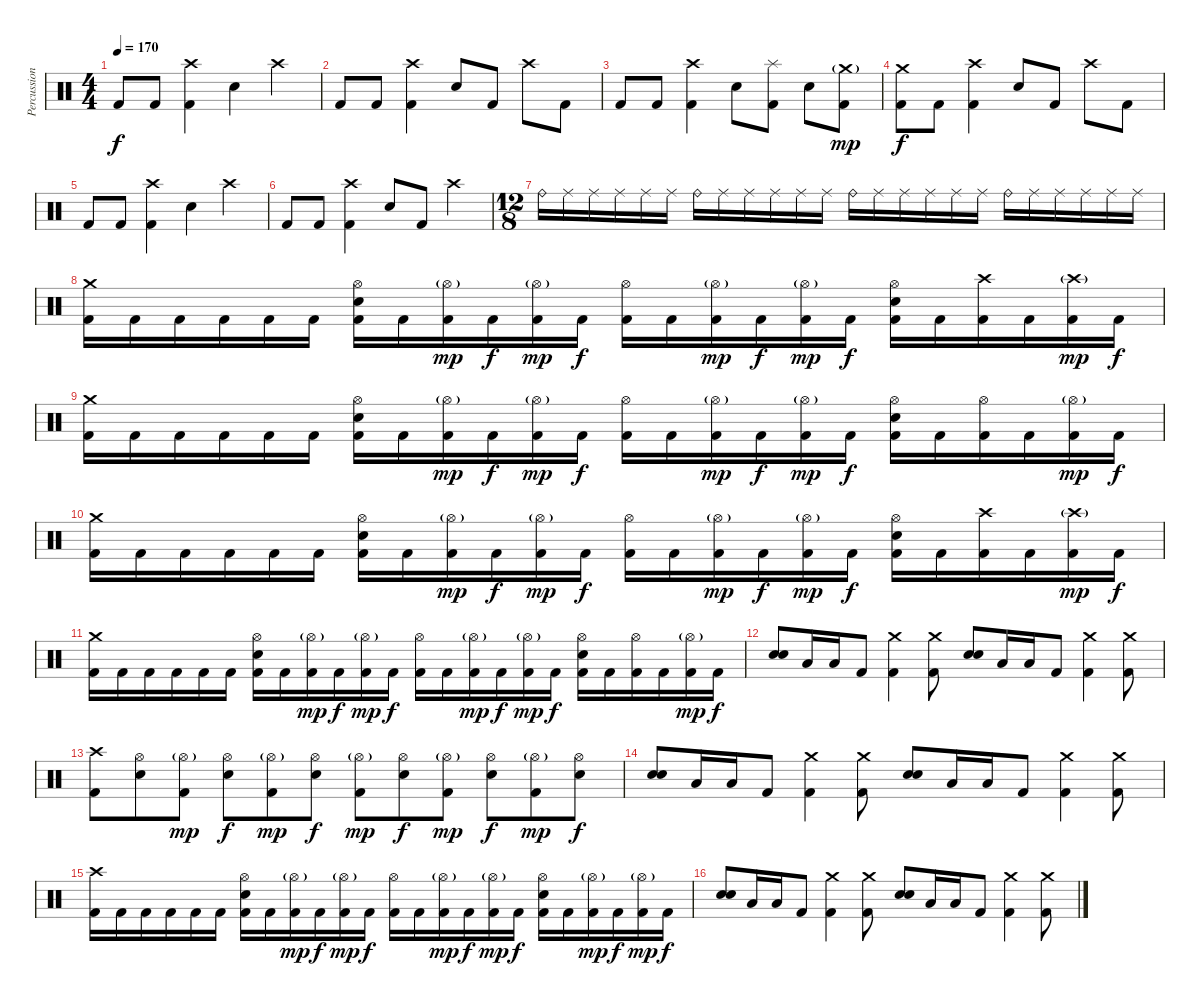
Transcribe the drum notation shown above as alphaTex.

\track ("Percussion" "Percussion") {instrument percussion}
\staff {score}
\articulation defaults
\ts (4 4)
\tempo 170
\clef neutral
\ks c "Kick (hit) 2".8{dy f} "Kick (hit) 2".8
("Crash high (hit)" "Kick (hit) 2").4 "Electric Snare (hit)".4 "Crash high (hit)".4 |
"Kick (hit) 2".8 "Kick (hit) 2".8 ("Crash high (hit)" "Kick (hit) 2").4 "Electric Snare (hit)".8 "Kick (hit) 2".8 "Crash high (hit)".8 "Kick (hit) 2".8 |
"Kick (hit) 2".8 "Kick (hit) 2".8 ("Crash high (hit)" "Kick (hit) 2").4 "Electric Snare (hit)".8 ("Splash (hit)" "Kick (hit) 2").8 "Electric Snare (hit)".8 ("Crash medium (hit)"{g} "Kick (hit) 2").8{dy mp} |
("Crash medium (hit)" "Kick (hit) 2").8{dy f} "Kick (hit) 2".8 ("Crash high (hit)" "Kick (hit) 2").4 "Electric Snare (hit)".8 "Kick (hit) 2".8 "Crash high (hit)".8 "Kick (hit) 2".8 |
"Kick (hit) 2".8 "Kick (hit) 2".8 ("Crash high (hit)" "Kick (hit) 2").4 "Electric Snare (hit)".4 "Crash high (hit)".4 |
"Kick (hit) 2".8 "Kick (hit) 2".8 ("Crash high (hit)" "Kick (hit) 2").4 "Electric Snare (hit)".8 "Kick (hit) 2".8 "Crash high (hit)".4 |
\ts (12 8)
"Ride (bell)".16 "Ride (middle)".16 "Ride (middle)".16 "Ride (middle)".16 "Ride (middle)".16 "Ride (middle)".16 "Ride (bell)".16 "Ride (middle)".16 "Ride (middle)".16 "Ride (middle)".16 "Ride (middle)".16 "Ride (middle)".16 "Ride (bell)".16 "Ride (middle)".16 "Ride (middle)".16 "Ride (middle)".16 "Ride (middle)".16 "Ride (middle)".16 "Ride (bell)".16 "Ride (middle)".16 "Ride (middle)".16 "Ride (middle)".16 "Ride (middle)".16 "Ride (middle)".16 |
("Crash medium (hit)" "Kick (hit) 2").16 "Kick (hit) 2".16 "Kick (hit) 2".16 "Kick (hit) 2".16 "Kick (hit) 2".16 "Kick (hit) 2".16 ("Hi-Hat (open)" "Electric Snare (hit)" "Kick (hit) 2").16 "Kick (hit) 2".16 ("Hi-Hat (open)"{g} "Kick (hit) 2").16{dy mp} "Kick (hit) 2".16{dy f} ("Hi-Hat (open)"{g} "Kick (hit) 2").16{dy mp} "Kick (hit) 2".16{dy f} ("Hi-Hat (open)" "Kick (hit) 2").16 "Kick (hit) 2".16 ("Hi-Hat (open)"{g} "Kick (hit) 2").16{dy mp} "Kick (hit) 2".16{dy f} ("Hi-Hat (open)"{g} "Kick (hit) 2").16{dy mp} "Kick (hit) 2".16{dy f} ("Hi-Hat (open)" "Electric Snare (hit)" "Kick (hit) 2").16 "Kick (hit) 2".16 ("Crash high (hit)" "Kick (hit) 2").16 "Kick (hit) 2".16 ("Crash high (hit)"{g} "Kick (hit) 2").16{dy mp} "Kick (hit) 2".16{dy f} |
("Crash medium (hit)" "Kick (hit) 2").16 "Kick (hit) 2".16 "Kick (hit) 2".16 "Kick (hit) 2".16 "Kick (hit) 2".16 "Kick (hit) 2".16 ("Hi-Hat (open)" "Electric Snare (hit)" "Kick (hit) 2").16 "Kick (hit) 2".16 ("Hi-Hat (open)"{g} "Kick (hit) 2").16{dy mp} "Kick (hit) 2".16{dy f} ("Hi-Hat (open)"{g} "Kick (hit) 2").16{dy mp} "Kick (hit) 2".16{dy f} ("Hi-Hat (open)" "Kick (hit) 2").16 "Kick (hit) 2".16 ("Hi-Hat (open)"{g} "Kick (hit) 2").16{dy mp} "Kick (hit) 2".16{dy f} ("Hi-Hat (open)"{g} "Kick (hit) 2").16{dy mp} "Kick (hit) 2".16{dy f} ("Hi-Hat (open)" "Electric Snare (hit)" "Kick (hit) 2").16 "Kick (hit) 2".16 ("Hi-Hat (open)" "Kick (hit) 2").16 "Kick (hit) 2".16 ("Hi-Hat (open)"{g} "Kick (hit) 2").16{dy mp} "Kick (hit) 2".16{dy f} |
("Crash medium (hit)" "Kick (hit) 2").16 "Kick (hit) 2".16 "Kick (hit) 2".16 "Kick (hit) 2".16 "Kick (hit) 2".16 "Kick (hit) 2".16 ("Hi-Hat (open)" "Electric Snare (hit)" "Kick (hit) 2").16 "Kick (hit) 2".16 ("Hi-Hat (open)"{g} "Kick (hit) 2").16{dy mp} "Kick (hit) 2".16{dy f} ("Hi-Hat (open)"{g} "Kick (hit) 2").16{dy mp} "Kick (hit) 2".16{dy f} ("Hi-Hat (open)" "Kick (hit) 2").16 "Kick (hit) 2".16 ("Hi-Hat (open)"{g} "Kick (hit) 2").16{dy mp} "Kick (hit) 2".16{dy f} ("Hi-Hat (open)"{g} "Kick (hit) 2").16{dy mp} "Kick (hit) 2".16{dy f} ("Hi-Hat (open)" "Electric Snare (hit)" "Kick (hit) 2").16 "Kick (hit) 2".16 ("Crash high (hit)" "Kick (hit) 2").16 "Kick (hit) 2".16 ("Crash high (hit)"{g} "Kick (hit) 2").16{dy mp} "Kick (hit) 2".16{dy f} |
("Crash medium (hit)" "Kick (hit) 2").16 "Kick (hit) 2".16 "Kick (hit) 2".16 "Kick (hit) 2".16 "Kick (hit) 2".16 "Kick (hit) 2".16 ("Hi-Hat (open)" "Electric Snare (hit)" "Kick (hit) 2").16 "Kick (hit) 2".16 ("Hi-Hat (open)"{g} "Kick (hit) 2").16{dy mp} "Kick (hit) 2".16{dy f} ("Hi-Hat (open)"{g} "Kick (hit) 2").16{dy mp} "Kick (hit) 2".16{dy f} ("Hi-Hat (open)" "Kick (hit) 2").16 "Kick (hit) 2".16 ("Hi-Hat (open)"{g} "Kick (hit) 2").16{dy mp} "Kick (hit) 2".16{dy f} ("Hi-Hat (open)"{g} "Kick (hit) 2").16{dy mp} "Kick (hit) 2".16{dy f} ("Hi-Hat (open)" "Electric Snare (hit)" "Kick (hit) 2").16 "Kick (hit) 2".16 ("Hi-Hat (open)" "Kick (hit) 2").16 "Kick (hit) 2".16 ("Hi-Hat (open)"{g} "Kick (hit) 2").16{dy mp} "Kick (hit) 2".16{dy f} |
("Electric Snare (hit)" "Electric Snare (hit)").8{bd 240} "Low Floor Tom (hit)".16 "Low Floor Tom (hit)".16 "Kick (hit) 2".8 ("Crash medium (hit)" "Kick (hit) 2").4 ("Crash medium (hit)" "Kick (hit) 2").8 ("Electric Snare (hit)" "Electric Snare (hit)").8{bd 240} "Low Floor Tom (hit)".16 "Low Floor Tom (hit)".16 "Kick (hit) 2".8 ("Crash medium (hit)" "Kick (hit) 2").4 ("Crash medium (hit)" "Kick (hit) 2").8 |
("Crash high (hit)" "Kick (hit) 2").8 ("Hi-Hat (open)" "Electric Snare (hit)").8 ("Hi-Hat (open)"{g} "Kick (hit) 2").8{dy mp} ("Hi-Hat (open)" "Electric Snare (hit)").8{dy f} ("Hi-Hat (open)"{g} "Kick (hit) 2").8{dy mp} ("Hi-Hat (open)" "Electric Snare (hit)").8{dy f} ("Hi-Hat (open)"{g} "Kick (hit) 2").8{dy mp} ("Hi-Hat (open)" "Electric Snare (hit)").8{dy f} ("Hi-Hat (open)"{g} "Kick (hit) 2").8{dy mp} ("Hi-Hat (open)" "Electric Snare (hit)").8{dy f} ("Hi-Hat (open)"{g} "Kick (hit) 2").8{dy mp} ("Hi-Hat (open)" "Electric Snare (hit)").8{dy f} |
("Electric Snare (hit)" "Electric Snare (hit)").8{bd 240} "Low Floor Tom (hit)".16 "Low Floor Tom (hit)".16 "Kick (hit) 2".8 ("Crash medium (hit)" "Kick (hit) 2").4 ("Crash medium (hit)" "Kick (hit) 2").8 ("Electric Snare (hit)" "Electric Snare (hit)").8{bd 240} "Low Floor Tom (hit)".16 "Low Floor Tom (hit)".16 "Kick (hit) 2".8 ("Crash medium (hit)" "Kick (hit) 2").4 ("Crash medium (hit)" "Kick (hit) 2").8 |
("Crash high (hit)" "Kick (hit) 2").16 "Kick (hit) 2".16 "Kick (hit) 2".16 "Kick (hit) 2".16 "Kick (hit) 2".16 "Kick (hit) 2".16 ("Hi-Hat (open)" "Electric Snare (hit)" "Kick (hit) 2").16 "Kick (hit) 2".16 ("Hi-Hat (open)"{g} "Kick (hit) 2").16{dy mp} "Kick (hit) 2".16{dy f} ("Hi-Hat (open)"{g} "Kick (hit) 2").16{dy mp} "Kick (hit) 2".16{dy f} ("Hi-Hat (open)" "Kick (hit) 2").16 "Kick (hit) 2".16 ("Hi-Hat (open)"{g} "Kick (hit) 2").16{dy mp} "Kick (hit) 2".16{dy f} ("Hi-Hat (open)"{g} "Kick (hit) 2").16{dy mp} "Kick (hit) 2".16{dy f} ("Hi-Hat (open)" "Electric Snare (hit)" "Kick (hit) 2").16 "Kick (hit) 2".16 ("Hi-Hat (open)"{g} "Kick (hit) 2").16{dy mp} "Kick (hit) 2".16{dy f} ("Hi-Hat (open)"{g} "Kick (hit) 2").16{dy mp} "Kick (hit) 2".16{dy f} |
("Electric Snare (hit)" "Electric Snare (hit)").8{bd 240} "Low Floor Tom (hit)".16 "Low Floor Tom (hit)".16 "Kick (hit) 2".8 ("Crash medium (hit)" "Kick (hit) 2").4 ("Crash medium (hit)" "Kick (hit) 2").8 ("Electric Snare (hit)" "Electric Snare (hit)").8{bd 240} "Low Floor Tom (hit)".16 "Low Floor Tom (hit)".16 "Kick (hit) 2".8 ("Crash medium (hit)" "Kick (hit) 2").4 ("Crash medium (hit)" "Kick (hit) 2").8
